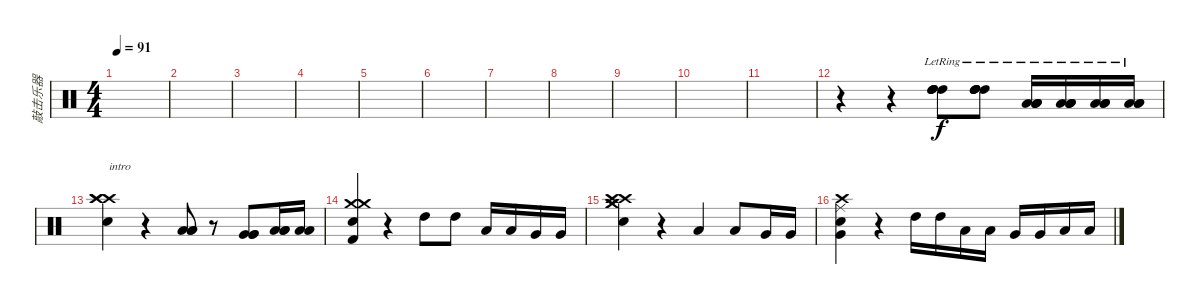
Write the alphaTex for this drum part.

\track ("敲击乐器" "敲击乐器") {instrument percussion}
\staff {score}
\articulation defaults
\ts (4 4)
\tempo 91
\clef neutral
\ks c
|
|
|
|
|
|
|
|
|
|
|
r.4 r.4 ("High Tom (hit)"{lr} "High Tom (hit)" "High Tom (hit)" "High Tom (hit)").8 ("High Tom (hit)"{lr} "High Tom (hit)" "High Tom (hit)" "High Tom (hit)").8 ("Low Tom (hit)"{lr} "Low Tom (hit)" "Low Tom (hit)" "Low Tom (hit)").16 ("Low Tom (hit)"{lr} "Low Tom (hit)" "Low Tom (hit)" "Low Tom (hit)").16 ("Low Floor Tom (hit)"{lr} "Low Floor Tom (hit)" "Low Floor Tom (hit)").16 ("Low Floor Tom (hit)"{lr} "Low Floor Tom (hit)" "Low Floor Tom (hit)").16 |
("Metronome (bell)" "Crash high (hit)" "Crash high (hit)" "Crash high (hit)").4{txt "intro" dy f} r.4 ("Low Tom (hit)" "Low Tom (hit)" "Low Tom (hit)").8 r.8 ("Very Low Tom (hit)" "Very Low Tom (hit)" "Very Low Tom (hit)").8 ("Low Floor Tom (hit)" "Low Floor Tom (hit)" "Low Floor Tom (hit)").16 ("Low Floor Tom (hit)" "Low Floor Tom (hit)").16 |
("Crash medium (hit)" "Kick (hit) 2" "Metronome (bell)" "Crash medium (hit)").4 r.4 "High Tom (hit)".8 "High Tom (hit)".8 "Low Tom (hit)".16 "Low Tom (hit)".16 "Very Low Tom (hit)".16 "Very Low Tom (hit)".16 |
("Crash high (hit)" "Crash medium (hit)" "Crash high (hit)" "Crash medium (hit)" "Metronome (bell)").4 r.4 "Low Tom (hit)".4 "Low Tom (hit)".8 "Very Low Tom (hit)".16 "Very Low Tom (hit)".16 |
("Crash high (hit)" "Ride (middle)" "Very Low Tom (hit)" "Metronome (bell)").4 r.4 "High Tom (hit)".16 "High Tom (hit)".16 "Low Tom (hit)".16 "Low Tom (hit)".16 "Very Low Tom (hit)".16 "Very Low Tom (hit)".16 "Low Floor Tom (hit)".16 "Low Floor Tom (hit)".16
